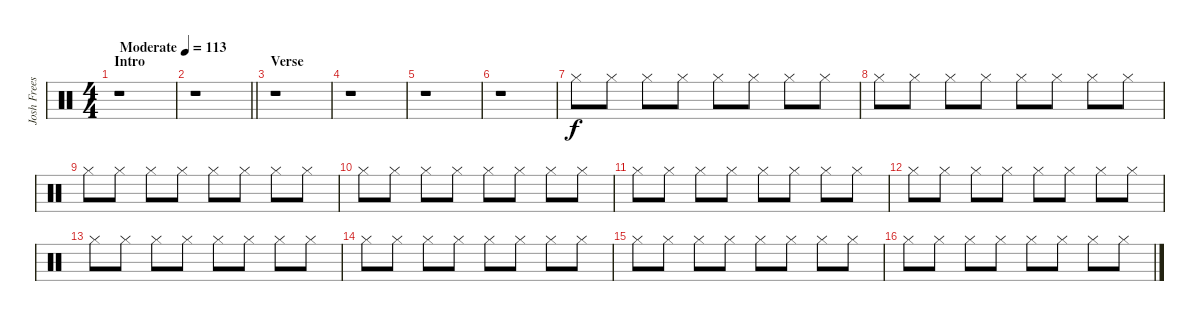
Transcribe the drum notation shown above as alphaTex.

\track ("Josh Freese (Studio Drummer)" "Josh Frees") {instrument percussion}
\staff {score}
\articulation defaults
\ts (4 4)
\section ("" "Intro")
\tempo (113 "Moderate")
\clef neutral
\ks c
r.1{dy f} |
\barLineRight lightlight
r.1 |
\section ("" "Verse")
r.1 |
r.1 |
r.1 |
r.1 |
"Hi-Hat (closed)".8 "Hi-Hat (closed)".8 "Hi-Hat (closed)".8 "Hi-Hat (closed)".8 "Hi-Hat (closed)".8 "Hi-Hat (closed)".8 "Hi-Hat (closed)".8 "Hi-Hat (closed)".8 |
"Hi-Hat (closed)".8 "Hi-Hat (closed)".8 "Hi-Hat (closed)".8 "Hi-Hat (closed)".8 "Hi-Hat (closed)".8 "Hi-Hat (closed)".8 "Hi-Hat (closed)".8 "Hi-Hat (closed)".8 |
"Hi-Hat (closed)".8 "Hi-Hat (closed)".8 "Hi-Hat (closed)".8 "Hi-Hat (closed)".8 "Hi-Hat (closed)".8 "Hi-Hat (closed)".8 "Hi-Hat (closed)".8 "Hi-Hat (closed)".8 |
"Hi-Hat (closed)".8 "Hi-Hat (closed)".8 "Hi-Hat (closed)".8 "Hi-Hat (closed)".8 "Hi-Hat (closed)".8 "Hi-Hat (closed)".8 "Hi-Hat (closed)".8 "Hi-Hat (closed)".8 |
"Hi-Hat (closed)".8 "Hi-Hat (closed)".8 "Hi-Hat (closed)".8 "Hi-Hat (closed)".8 "Hi-Hat (closed)".8 "Hi-Hat (closed)".8 "Hi-Hat (closed)".8 "Hi-Hat (closed)".8 |
"Hi-Hat (closed)".8 "Hi-Hat (closed)".8 "Hi-Hat (closed)".8 "Hi-Hat (closed)".8 "Hi-Hat (closed)".8 "Hi-Hat (closed)".8 "Hi-Hat (closed)".8 "Hi-Hat (closed)".8 |
"Hi-Hat (closed)".8 "Hi-Hat (closed)".8 "Hi-Hat (closed)".8 "Hi-Hat (closed)".8 "Hi-Hat (closed)".8 "Hi-Hat (closed)".8 "Hi-Hat (closed)".8 "Hi-Hat (closed)".8 |
"Hi-Hat (closed)".8 "Hi-Hat (closed)".8 "Hi-Hat (closed)".8 "Hi-Hat (closed)".8 "Hi-Hat (closed)".8 "Hi-Hat (closed)".8 "Hi-Hat (closed)".8 "Hi-Hat (closed)".8 |
"Hi-Hat (closed)".8 "Hi-Hat (closed)".8 "Hi-Hat (closed)".8 "Hi-Hat (closed)".8 "Hi-Hat (closed)".8 "Hi-Hat (closed)".8 "Hi-Hat (closed)".8 "Hi-Hat (closed)".8 |
"Hi-Hat (closed)".8 "Hi-Hat (closed)".8 "Hi-Hat (closed)".8 "Hi-Hat (closed)".8 "Hi-Hat (closed)".8 "Hi-Hat (closed)".8 "Hi-Hat (closed)".8 "Hi-Hat (closed)".8
